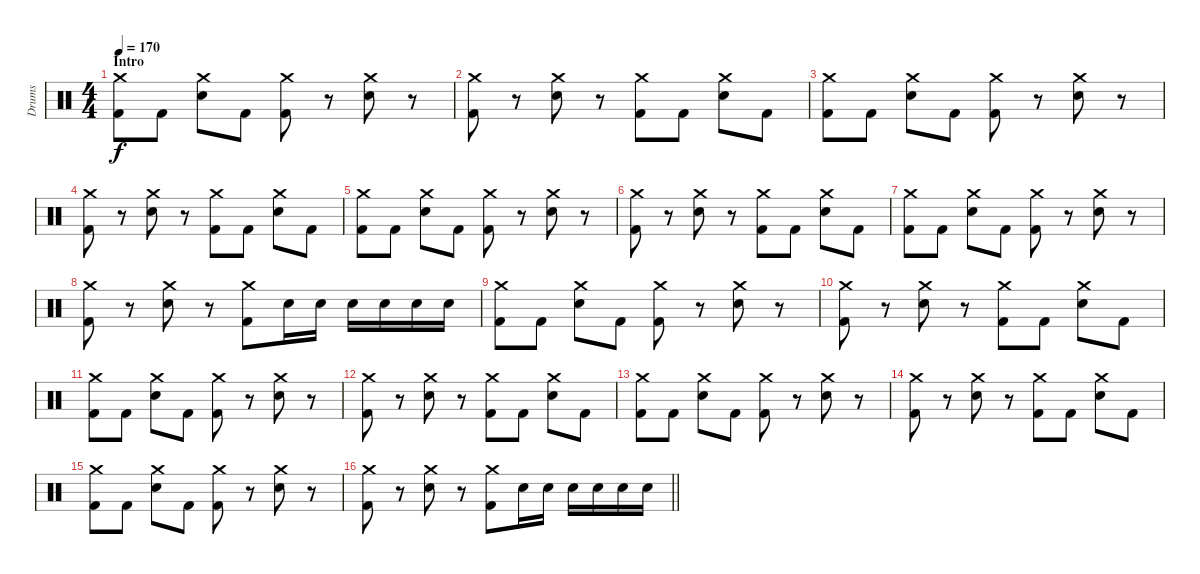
\track ("Drums" "Drums") {instrument percussion}
\staff {score}
\articulation defaults
\ts (4 4)
\section ("" "Intro")
\tempo 170
\clef neutral
\ks c
("Crash medium (hit)" "Kick (hit) 2").8{dy f} "Kick (hit) 2".8 ("Crash medium (hit)" "Electric Snare (hit)").8 "Kick (hit) 2".8 ("Crash medium (hit)" "Kick (hit) 2").8 r.8 ("Crash medium (hit)" "Electric Snare (hit)").8 r.8 |
("Crash medium (hit)" "Kick (hit) 2").8 r.8 ("Crash medium (hit)" "Electric Snare (hit)").8 r.8 ("Crash medium (hit)" "Kick (hit) 2").8 "Kick (hit) 2".8 ("Crash medium (hit)" "Electric Snare (hit)").8 "Kick (hit) 2".8 |
("Crash medium (hit)" "Kick (hit) 2").8 "Kick (hit) 2".8 ("Crash medium (hit)" "Electric Snare (hit)").8 "Kick (hit) 2".8 ("Crash medium (hit)" "Kick (hit) 2").8 r.8 ("Crash medium (hit)" "Electric Snare (hit)").8 r.8 |
("Crash medium (hit)" "Kick (hit) 2").8 r.8 ("Crash medium (hit)" "Electric Snare (hit)").8 r.8 ("Crash medium (hit)" "Kick (hit) 2").8 "Kick (hit) 2".8 ("Crash medium (hit)" "Electric Snare (hit)").8 "Kick (hit) 2".8 |
("Crash medium (hit)" "Kick (hit) 2").8 "Kick (hit) 2".8 ("Crash medium (hit)" "Electric Snare (hit)").8 "Kick (hit) 2".8 ("Crash medium (hit)" "Kick (hit) 2").8 r.8 ("Crash medium (hit)" "Electric Snare (hit)").8 r.8 |
("Crash medium (hit)" "Kick (hit) 2").8 r.8 ("Crash medium (hit)" "Electric Snare (hit)").8 r.8 ("Crash medium (hit)" "Kick (hit) 2").8 "Kick (hit) 2".8 ("Crash medium (hit)" "Electric Snare (hit)").8 "Kick (hit) 2".8 |
("Crash medium (hit)" "Kick (hit) 2").8 "Kick (hit) 2".8 ("Crash medium (hit)" "Electric Snare (hit)").8 "Kick (hit) 2".8 ("Crash medium (hit)" "Kick (hit) 2").8 r.8 ("Crash medium (hit)" "Electric Snare (hit)").8 r.8 |
("Crash medium (hit)" "Kick (hit) 2").8 r.8 ("Crash medium (hit)" "Electric Snare (hit)").8 r.8 ("Crash medium (hit)" "Kick (hit) 2").8 "Electric Snare (hit)".16 "Electric Snare (hit)".16 "Electric Snare (hit)".16 "Electric Snare (hit)".16 "Electric Snare (hit)".16 "Electric Snare (hit)".16 |
("Crash medium (hit)" "Kick (hit) 2").8 "Kick (hit) 2".8 ("Crash medium (hit)" "Electric Snare (hit)").8 "Kick (hit) 2".8 ("Crash medium (hit)" "Kick (hit) 2").8 r.8 ("Crash medium (hit)" "Electric Snare (hit)").8 r.8 |
("Crash medium (hit)" "Kick (hit) 2").8 r.8 ("Crash medium (hit)" "Electric Snare (hit)").8 r.8 ("Crash medium (hit)" "Kick (hit) 2").8 "Kick (hit) 2".8 ("Crash medium (hit)" "Electric Snare (hit)").8 "Kick (hit) 2".8 |
("Crash medium (hit)" "Kick (hit) 2").8 "Kick (hit) 2".8 ("Crash medium (hit)" "Electric Snare (hit)").8 "Kick (hit) 2".8 ("Crash medium (hit)" "Kick (hit) 2").8 r.8 ("Crash medium (hit)" "Electric Snare (hit)").8 r.8 |
("Crash medium (hit)" "Kick (hit) 2").8 r.8 ("Crash medium (hit)" "Electric Snare (hit)").8 r.8 ("Crash medium (hit)" "Kick (hit) 2").8 "Kick (hit) 2".8 ("Crash medium (hit)" "Electric Snare (hit)").8 "Kick (hit) 2".8 |
("Crash medium (hit)" "Kick (hit) 2").8 "Kick (hit) 2".8 ("Crash medium (hit)" "Electric Snare (hit)").8 "Kick (hit) 2".8 ("Crash medium (hit)" "Kick (hit) 2").8 r.8 ("Crash medium (hit)" "Electric Snare (hit)").8 r.8 |
("Crash medium (hit)" "Kick (hit) 2").8 r.8 ("Crash medium (hit)" "Electric Snare (hit)").8 r.8 ("Crash medium (hit)" "Kick (hit) 2").8 "Kick (hit) 2".8 ("Crash medium (hit)" "Electric Snare (hit)").8 "Kick (hit) 2".8 |
("Crash medium (hit)" "Kick (hit) 2").8 "Kick (hit) 2".8 ("Crash medium (hit)" "Electric Snare (hit)").8 "Kick (hit) 2".8 ("Crash medium (hit)" "Kick (hit) 2").8 r.8 ("Crash medium (hit)" "Electric Snare (hit)").8 r.8 |
\barLineRight lightlight
("Crash medium (hit)" "Kick (hit) 2").8 r.8 ("Crash medium (hit)" "Electric Snare (hit)").8 r.8 ("Crash medium (hit)" "Kick (hit) 2").8 "Electric Snare (hit)".16 "Electric Snare (hit)".16 "Electric Snare (hit)".16 "Electric Snare (hit)".16 "Electric Snare (hit)".16 "Electric Snare (hit)".16
